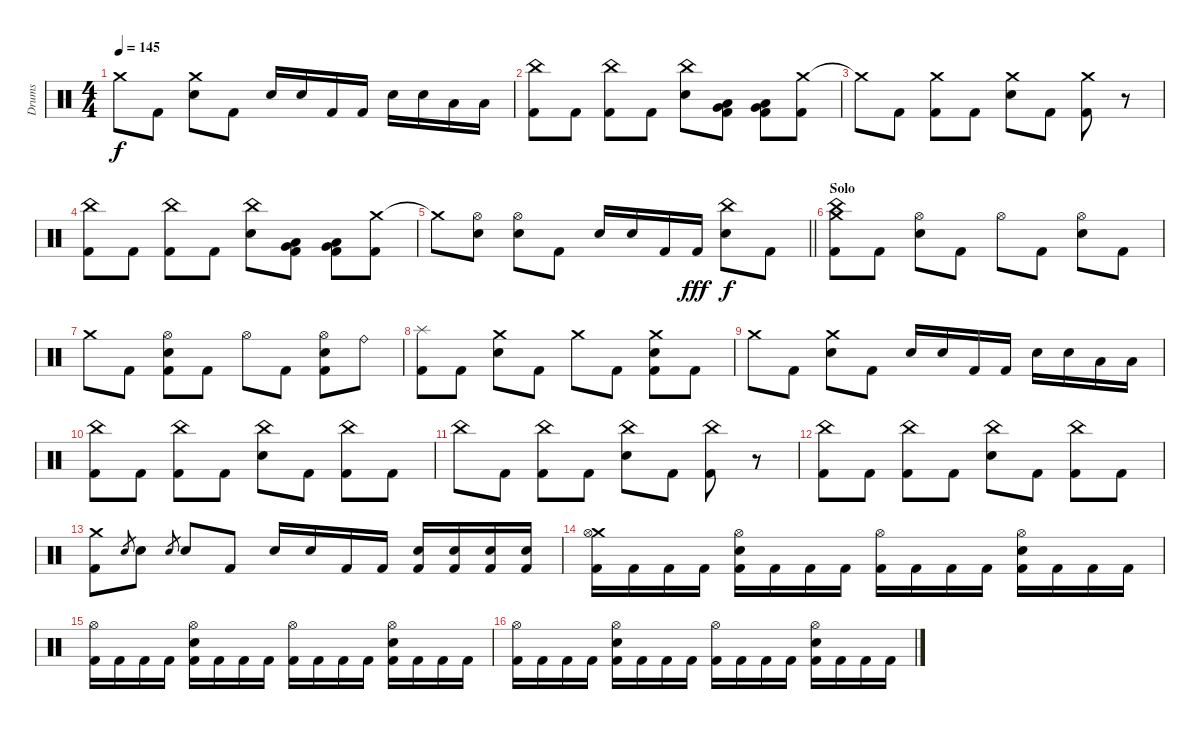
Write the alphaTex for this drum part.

\track ("Drums" "Drums") {instrument percussion}
\staff {score}
\articulation defaults
\ts (4 4)
\tempo 145
\clef neutral
\ks c "Crash medium (hit)".8{dy f} "Kick (hit) 2".8
("Crash medium (hit)" "Electric Snare (hit)").8 "Kick (hit) 2".8 "Electric Snare (hit)".16 "Electric Snare (hit)".16 "Kick (hit) 2".16 "Kick (hit) 2".16 "Electric Snare (hit)".16 "Electric Snare (hit)".16 "Low Tom (hit)".16 "Low Tom (hit)".16 |
("China (hit)" "Kick (hit) 2").8 "Kick (hit) 2".8 ("China (hit)" "Kick (hit) 2").8 "Kick (hit) 2".8 ("China (hit)" "Electric Snare (hit)").8 ("Very Low Tom (hit)" "Low Floor Tom (hit)" "Kick (hit) 2").8 ("Very Low Tom (hit)" "Low Floor Tom (hit)" "Kick (hit) 2").8 ("Crash medium (hit)" "Kick (hit) 2").8 |
"Crash medium (hit)"{t}.8 "Kick (hit) 2".8 ("Crash medium (hit)" "Kick (hit) 2").8 "Kick (hit) 2".8 ("Crash medium (hit)" "Electric Snare (hit)").8 "Kick (hit) 2".8 ("Crash medium (hit)" "Kick (hit) 2").8 r.8 |
("China (hit)" "Kick (hit) 2").8 "Kick (hit) 2".8 ("China (hit)" "Kick (hit) 2").8 "Kick (hit) 2".8 ("China (hit)" "Electric Snare (hit)").8 ("Very Low Tom (hit)" "Low Floor Tom (hit)" "Kick (hit) 2").8 ("Very Low Tom (hit)" "Low Floor Tom (hit)" "Kick (hit) 2").8 ("Crash medium (hit)" "Kick (hit) 2").8 |
\barLineRight lightlight "Crash medium (hit)"{t}.8
("Hi-Hat (open)" "Electric Snare (hit)").8 ("Hi-Hat (open)" "Electric Snare (hit)").8 "Kick (hit) 2".8 "Electric Snare (hit)".16 "Electric Snare (hit)".16 "Kick (hit) 2".16 "Kick (hit) 2".16{dy fff} ("China (hit)" "Electric Snare (hit)").8{dy f} "Kick (hit) 2".8 |
\section ("" "Solo")
("Crash medium (hit)" "China (hit)" "Kick (hit) 2").8 "Kick (hit) 2".8 ("Hi-Hat (open)" "Electric Snare (hit)").8 "Kick (hit) 2".8 "Hi-Hat (open)".8 "Kick (hit) 2".8 ("Hi-Hat (open)" "Electric Snare (hit)").8 "Kick (hit) 2".8 |
"Crash medium (hit)".8 "Kick (hit) 2".8 ("Hi-Hat (open)" "Electric Snare (hit)" "Kick (hit) 2").8 "Kick (hit) 2".8 "Hi-Hat (open)".8 "Kick (hit) 2".8 ("Hi-Hat (open)" "Electric Snare (hit)" "Kick (hit) 2").8 "Ride (bell)".8 |
("Splash (hit)" "Kick (hit) 2").8 "Kick (hit) 2".8 ("Crash medium (hit)" "Electric Snare (hit)").8 "Kick (hit) 2".8 "Crash medium (hit)".8 "Kick (hit) 2".8 ("Crash medium (hit)" "Electric Snare (hit)" "Kick (hit) 2").8 "Kick (hit) 2".8 |
"Crash medium (hit)".8 "Kick (hit) 2".8 ("Crash medium (hit)" "Electric Snare (hit)").8 "Kick (hit) 2".8 "Electric Snare (hit)".16 "Electric Snare (hit)".16 "Kick (hit) 2".16 "Kick (hit) 2".16 "Electric Snare (hit)".16 "Electric Snare (hit)".16 "Low Tom (hit)".16 "Low Tom (hit)".16 |
("China (hit)" "Kick (hit) 2").8 "Kick (hit) 2".8 ("China (hit)" "Kick (hit) 2").8 "Kick (hit) 2".8 ("China (hit)" "Electric Snare (hit)").8 "Kick (hit) 2".8 ("China (hit)" "Kick (hit) 2").8 "Kick (hit) 2".8 |
"China (hit)".8 "Kick (hit) 2".8 ("China (hit)" "Kick (hit) 2").8 "Kick (hit) 2".8 ("China (hit)" "Electric Snare (hit)").8 "Kick (hit) 2".8 ("China (hit)" "Kick (hit) 2").8 r.8 |
("China (hit)" "Kick (hit) 2").8 "Kick (hit) 2".8 ("China (hit)" "Kick (hit) 2").8 "Kick (hit) 2".8 ("China (hit)" "Electric Snare (hit)").8 "Kick (hit) 2".8 ("China (hit)" "Kick (hit) 2").8 "Kick (hit) 2".8 |
("Crash medium (hit)" "Kick (hit) 2").8 "Electric Snare (hit)".8{gr} "Electric Snare (hit)".8 "Electric Snare (hit)".8{gr} "Electric Snare (hit)".8 "Kick (hit) 2".8 "Electric Snare (hit)".16 "Electric Snare (hit)".16 "Kick (hit) 2".16 "Kick (hit) 2".16 ("Electric Snare (hit)" "Kick (hit) 2").16 ("Electric Snare (hit)" "Kick (hit) 2").16 ("Electric Snare (hit)" "Kick (hit) 2").16 ("Electric Snare (hit)" "Kick (hit) 2").16 |
("Crash medium (hit)" "Hi-Hat (open)" "Kick (hit) 2").16 "Kick (hit) 2".16 "Kick (hit) 2".16 "Kick (hit) 2".16 ("Hi-Hat (open)" "Electric Snare (hit)" "Kick (hit) 2").16 "Kick (hit) 2".16 "Kick (hit) 2".16 "Kick (hit) 2".16 ("Hi-Hat (open)" "Kick (hit) 2").16 "Kick (hit) 2".16 "Kick (hit) 2".16 "Kick (hit) 2".16 ("Hi-Hat (open)" "Electric Snare (hit)" "Kick (hit) 2").16 "Kick (hit) 2".16 "Kick (hit) 2".16 "Kick (hit) 2".16 |
("Hi-Hat (open)" "Kick (hit) 2").16 "Kick (hit) 2".16 "Kick (hit) 2".16 "Kick (hit) 2".16 ("Hi-Hat (open)" "Electric Snare (hit)" "Kick (hit) 2").16 "Kick (hit) 2".16 "Kick (hit) 2".16 "Kick (hit) 2".16 ("Hi-Hat (open)" "Kick (hit) 2").16 "Kick (hit) 2".16 "Kick (hit) 2".16 "Kick (hit) 2".16 ("Hi-Hat (open)" "Electric Snare (hit)" "Kick (hit) 2").16 "Kick (hit) 2".16 "Kick (hit) 2".16 "Kick (hit) 2".16 |
("Hi-Hat (open)" "Kick (hit) 2").16 "Kick (hit) 2".16 "Kick (hit) 2".16 "Kick (hit) 2".16 ("Hi-Hat (open)" "Electric Snare (hit)" "Kick (hit) 2").16 "Kick (hit) 2".16 "Kick (hit) 2".16 "Kick (hit) 2".16 ("Hi-Hat (open)" "Kick (hit) 2").16 "Kick (hit) 2".16 "Kick (hit) 2".16 "Kick (hit) 2".16 ("Hi-Hat (open)" "Electric Snare (hit)" "Kick (hit) 2").16 "Kick (hit) 2".16 "Kick (hit) 2".16 "Kick (hit) 2".16
